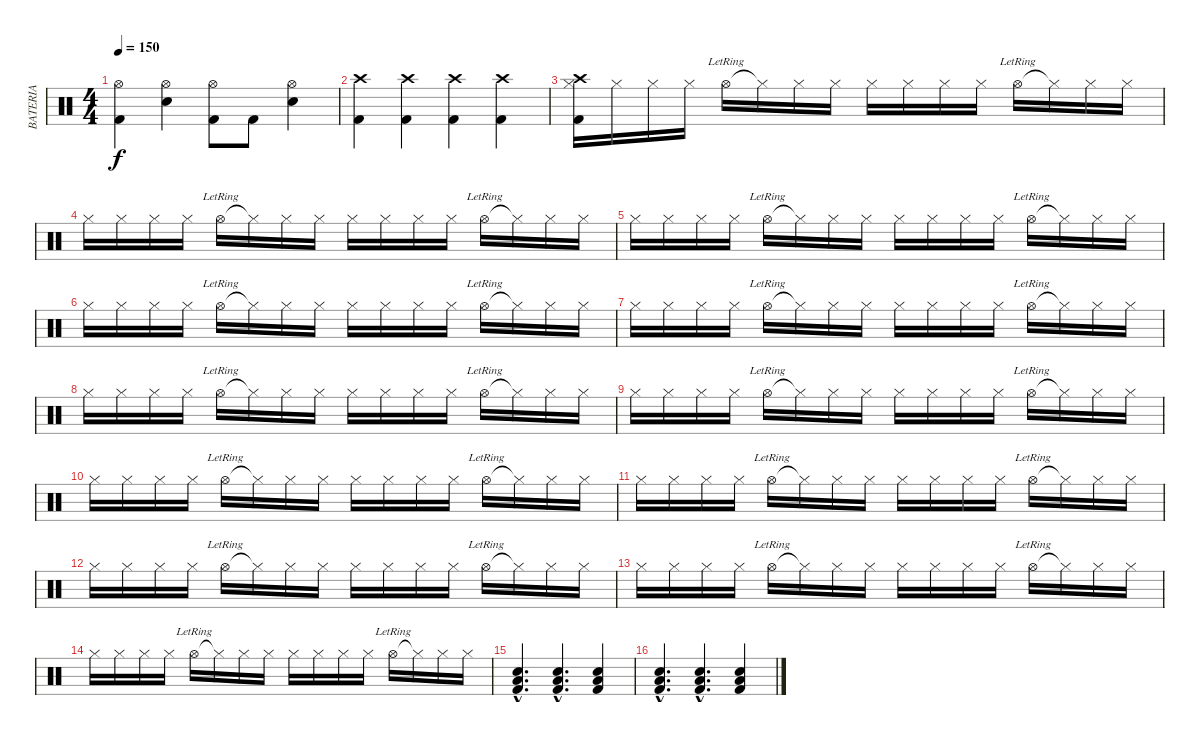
\track ("BATERIA" "BATERIA") {instrument percussion}
\staff {score}
\articulation defaults
\ts (4 4)
\tempo 150
\clef neutral
\ks c
("Hi-Hat (open)" "Kick (hit) 2").4{dy f} ("Hi-Hat (open)" "Snare (hit) 2").4 ("Hi-Hat (open)" "Kick (hit) 2").8 "Kick (hit) 2".8 ("Hi-Hat (open)" "Snare (hit) 2").4 |
("Crash high (hit)" "Kick (hit) 2").4 ("Crash high (hit)" "Kick (hit) 2").4 ("Crash high (hit)" "Kick (hit) 2").4 ("Crash high (hit)" "Kick (hit) 2").4 |
("Crash high (hit)" "Hi-Hat (closed)" "Kick (hit) 2").16 "Hi-Hat (closed)".16 "Hi-Hat (closed)".16 "Hi-Hat (closed)".16 "Hi-Hat (open)"{lr}.16 "Hi-Hat (closed)"{t}.16 "Hi-Hat (closed)".16 "Hi-Hat (closed)".16 "Hi-Hat (closed)".16 "Hi-Hat (closed)".16 "Hi-Hat (closed)".16 "Hi-Hat (closed)".16 "Hi-Hat (open)"{lr}.16 "Hi-Hat (closed)"{t}.16 "Hi-Hat (closed)".16 "Hi-Hat (closed)".16 |
"Hi-Hat (closed)".16 "Hi-Hat (closed)".16 "Hi-Hat (closed)".16 "Hi-Hat (closed)".16 "Hi-Hat (open)"{lr}.16 "Hi-Hat (closed)"{t}.16 "Hi-Hat (closed)".16 "Hi-Hat (closed)".16 "Hi-Hat (closed)".16 "Hi-Hat (closed)".16 "Hi-Hat (closed)".16 "Hi-Hat (closed)".16 "Hi-Hat (open)"{lr}.16 "Hi-Hat (closed)"{t}.16 "Hi-Hat (closed)".16 "Hi-Hat (closed)".16 |
"Hi-Hat (closed)".16 "Hi-Hat (closed)".16 "Hi-Hat (closed)".16 "Hi-Hat (closed)".16 "Hi-Hat (open)"{lr}.16 "Hi-Hat (closed)"{t}.16 "Hi-Hat (closed)".16 "Hi-Hat (closed)".16 "Hi-Hat (closed)".16 "Hi-Hat (closed)".16 "Hi-Hat (closed)".16 "Hi-Hat (closed)".16 "Hi-Hat (open)"{lr}.16 "Hi-Hat (closed)"{t}.16 "Hi-Hat (closed)".16 "Hi-Hat (closed)".16 |
"Hi-Hat (closed)".16 "Hi-Hat (closed)".16 "Hi-Hat (closed)".16 "Hi-Hat (closed)".16 "Hi-Hat (open)"{lr}.16 "Hi-Hat (closed)"{t}.16 "Hi-Hat (closed)".16 "Hi-Hat (closed)".16 "Hi-Hat (closed)".16 "Hi-Hat (closed)".16 "Hi-Hat (closed)".16 "Hi-Hat (closed)".16 "Hi-Hat (open)"{lr}.16 "Hi-Hat (closed)"{t}.16 "Hi-Hat (closed)".16 "Hi-Hat (closed)".16 |
"Hi-Hat (closed)".16 "Hi-Hat (closed)".16 "Hi-Hat (closed)".16 "Hi-Hat (closed)".16 "Hi-Hat (open)"{lr}.16 "Hi-Hat (closed)"{t}.16 "Hi-Hat (closed)".16 "Hi-Hat (closed)".16 "Hi-Hat (closed)".16 "Hi-Hat (closed)".16 "Hi-Hat (closed)".16 "Hi-Hat (closed)".16 "Hi-Hat (open)"{lr}.16 "Hi-Hat (closed)"{t}.16 "Hi-Hat (closed)".16 "Hi-Hat (closed)".16 |
"Hi-Hat (closed)".16 "Hi-Hat (closed)".16 "Hi-Hat (closed)".16 "Hi-Hat (closed)".16 "Hi-Hat (open)"{lr}.16 "Hi-Hat (closed)"{t}.16 "Hi-Hat (closed)".16 "Hi-Hat (closed)".16 "Hi-Hat (closed)".16 "Hi-Hat (closed)".16 "Hi-Hat (closed)".16 "Hi-Hat (closed)".16 "Hi-Hat (open)"{lr}.16 "Hi-Hat (closed)"{t}.16 "Hi-Hat (closed)".16 "Hi-Hat (closed)".16 |
"Hi-Hat (closed)".16 "Hi-Hat (closed)".16 "Hi-Hat (closed)".16 "Hi-Hat (closed)".16 "Hi-Hat (open)"{lr}.16 "Hi-Hat (closed)"{t}.16 "Hi-Hat (closed)".16 "Hi-Hat (closed)".16 "Hi-Hat (closed)".16 "Hi-Hat (closed)".16 "Hi-Hat (closed)".16 "Hi-Hat (closed)".16 "Hi-Hat (open)"{lr}.16 "Hi-Hat (closed)"{t}.16 "Hi-Hat (closed)".16 "Hi-Hat (closed)".16 |
"Hi-Hat (closed)".16 "Hi-Hat (closed)".16 "Hi-Hat (closed)".16 "Hi-Hat (closed)".16 "Hi-Hat (open)"{lr}.16 "Hi-Hat (closed)"{t}.16 "Hi-Hat (closed)".16 "Hi-Hat (closed)".16 "Hi-Hat (closed)".16 "Hi-Hat (closed)".16 "Hi-Hat (closed)".16 "Hi-Hat (closed)".16 "Hi-Hat (open)"{lr}.16 "Hi-Hat (closed)"{t}.16 "Hi-Hat (closed)".16 "Hi-Hat (closed)".16 |
"Hi-Hat (closed)".16 "Hi-Hat (closed)".16 "Hi-Hat (closed)".16 "Hi-Hat (closed)".16 "Hi-Hat (open)"{lr}.16 "Hi-Hat (closed)"{t}.16 "Hi-Hat (closed)".16 "Hi-Hat (closed)".16 "Hi-Hat (closed)".16 "Hi-Hat (closed)".16 "Hi-Hat (closed)".16 "Hi-Hat (closed)".16 "Hi-Hat (open)"{lr}.16 "Hi-Hat (closed)"{t}.16 "Hi-Hat (closed)".16 "Hi-Hat (closed)".16 |
"Hi-Hat (closed)".16 "Hi-Hat (closed)".16 "Hi-Hat (closed)".16 "Hi-Hat (closed)".16 "Hi-Hat (open)"{lr}.16 "Hi-Hat (closed)"{t}.16 "Hi-Hat (closed)".16 "Hi-Hat (closed)".16 "Hi-Hat (closed)".16 "Hi-Hat (closed)".16 "Hi-Hat (closed)".16 "Hi-Hat (closed)".16 "Hi-Hat (open)"{lr}.16 "Hi-Hat (closed)"{t}.16 "Hi-Hat (closed)".16 "Hi-Hat (closed)".16 |
"Hi-Hat (closed)".16 "Hi-Hat (closed)".16 "Hi-Hat (closed)".16 "Hi-Hat (closed)".16 "Hi-Hat (open)"{lr}.16 "Hi-Hat (closed)"{t}.16 "Hi-Hat (closed)".16 "Hi-Hat (closed)".16 "Hi-Hat (closed)".16 "Hi-Hat (closed)".16 "Hi-Hat (closed)".16 "Hi-Hat (closed)".16 "Hi-Hat (open)"{lr}.16 "Hi-Hat (closed)"{t}.16 "Hi-Hat (closed)".16 "Hi-Hat (closed)".16 |
"Hi-Hat (closed)".16 "Hi-Hat (closed)".16 "Hi-Hat (closed)".16 "Hi-Hat (closed)".16 "Hi-Hat (open)"{lr}.16 "Hi-Hat (closed)"{t}.16 "Hi-Hat (closed)".16 "Hi-Hat (closed)".16 "Hi-Hat (closed)".16 "Hi-Hat (closed)".16 "Hi-Hat (closed)".16 "Hi-Hat (closed)".16 "Hi-Hat (open)"{lr}.16 "Hi-Hat (closed)"{t}.16 "Hi-Hat (closed)".16 "Hi-Hat (closed)".16 |
("Snare (hit) 2"{hac} "Low Floor Tom (hit)"{hac} "Kick (hit) 2"{hac}).4{d} ("Snare (hit) 2"{hac} "Low Floor Tom (hit)"{hac} "Kick (hit) 2"{hac}).4{d} ("Snare (hit) 2" "Low Floor Tom (hit)" "Kick (hit) 2").4 |
("Snare (hit) 2"{hac} "Low Floor Tom (hit)"{hac} "Kick (hit) 2"{hac}).4{d} ("Snare (hit) 2"{hac} "Low Floor Tom (hit)"{hac} "Kick (hit) 2"{hac}).4{d} ("Snare (hit) 2" "Low Floor Tom (hit)" "Kick (hit) 2").4
